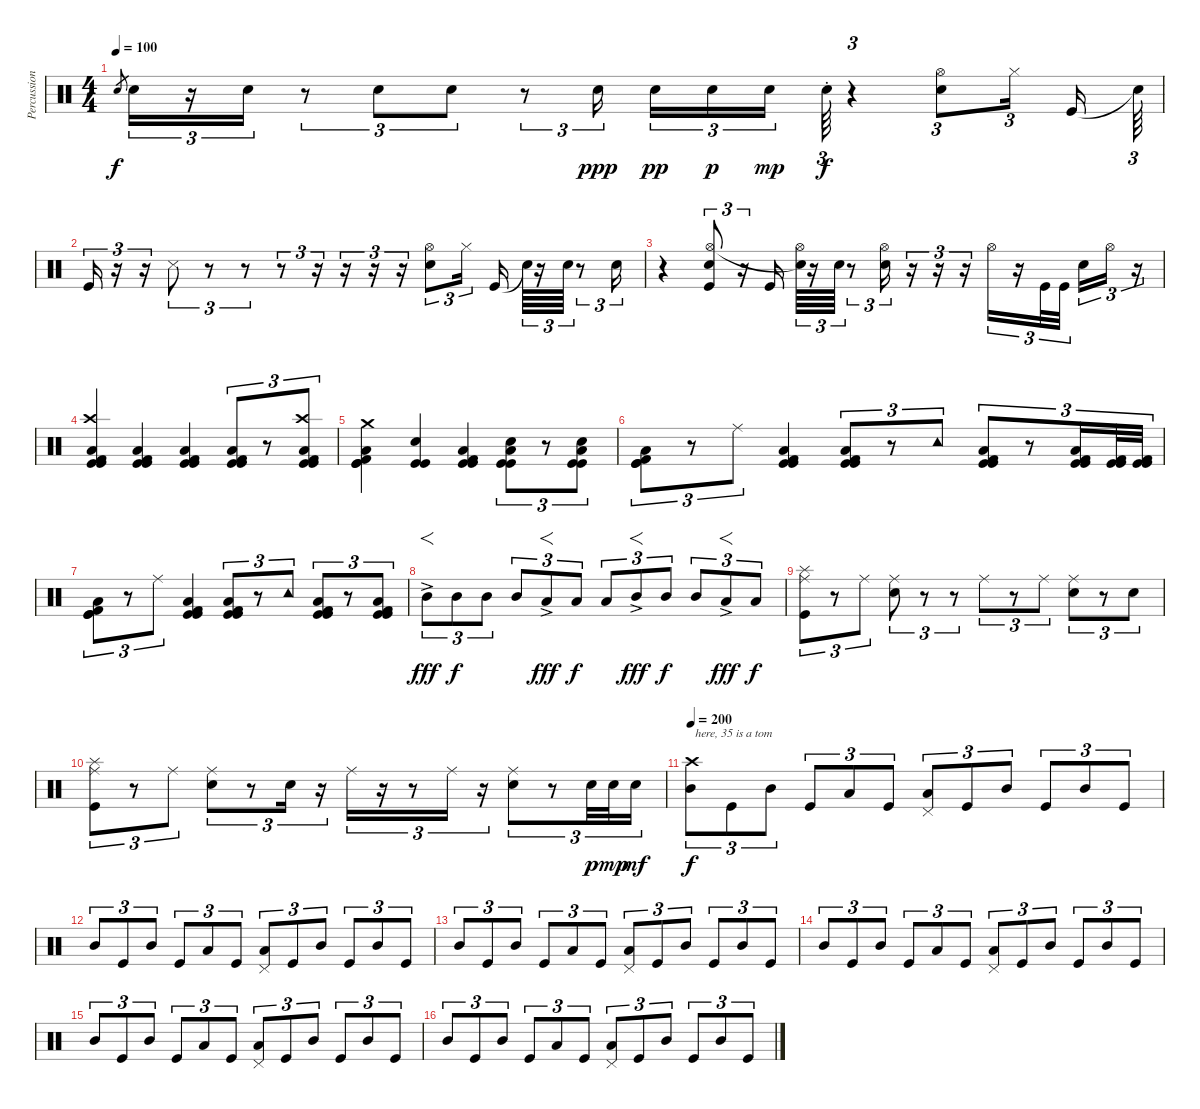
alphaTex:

\track ("Percussions" "Percussion") {instrument percussion}
\staff {score}
\articulation defaults
\ts (4 4)
\tempo 100
\clef neutral
\ks c "Snare (hit) 2".8{gr dy f} "Snare (hit) 2".16{tu (3 2)}
r.16{tu (3 2)} "Snare (hit) 2".16{tu (3 2)} r.8{tu (3 2)} "Snare (hit) 2".8{tu (3 2)} "Snare (hit) 2".8{tu (3 2)} r.8{tu (3 2)} "Snare (hit) 2".16{tu (3 2) dy ppp} "Snare (hit) 2".16{tu (3 2) dy pp} "Snare (hit) 2".16{tu (3 2) dy p} "Snare (hit) 2".16{tu (3 2) dy mp} "Snare (hit) 2"{st}.64{tu (3 2) dy f} r.4{tu (3 2)} ("Snare (hit) 2" "Hi-Hat (open)").8{tu (3 2)} "Hi-Hat (closed)".16{tu (3 2)} "Kick (hit)".16 "Snare (hit)"{t}.64{tu (3 2)} |
"Kick (hit)".16{tu (3 2)} r.16{tu (3 2)} r.16{tu (3 2)} "Snare (side stick) 3".8{tu (3 2)} r.8{tu (3 2)} r.8{tu (3 2)} r.8{tu (3 2)} r.16{tu (3 2)} r.16{tu (3 2)} r.16{tu (3 2)} r.16{tu (3 2)} ("Snare (hit) 2" "Hi-Hat (open)").8{tu (3 2)} "Hi-Hat (closed)".16{tu (3 2)} "Kick (hit)".16 "Snare (hit)"{t}.64{tu (3 2)} r.16{tu (3 2)} "Snare (hit) 2".64{tu (3 2)} r.8{tu (3 2)} "Snare (hit) 2".16{tu (3 2)} |
r.4 ("Snare (hit) 2" "Hi-Hat (open)" "Kick (hit)").8{tu (3 2)} r.16{tu (3 2)} "Kick (hit)".16 ("Hi-Hat (open)" "Snare (hit)"{t}).64{tu (3 2)} r.16{tu (3 2)} "Snare (hit) 2".64{tu (3 2)} r.8{tu (3 2)} ("Snare (hit) 2" "Hi-Hat (open)").16{tu (3 2)} r.16{tu (3 2)} r.16{tu (3 2)} r.16{tu (3 2)} "Hi-Hat (open)".16{tu (3 2)} r.16{tu (3 2)} "Kick (hit)".32{tu (3 2)} "Kick (hit)".32{tu (3 2)} "Snare (hit) 2".16{tu (3 2)} "Hi-Hat (open)".16{tu (3 2)} r.16{tu (3 2)} |
("Crash high (hit)" "Low Floor Tom (hit)" "Kick (hit) 2" "Kick (hit)" "Kick (hit)").4 ("Low Floor Tom (hit)" "Kick (hit) 2" "Kick (hit)" "Kick (hit)").4 ("Low Floor Tom (hit)" "Kick (hit) 2" "Kick (hit)" "Kick (hit)").4 ("Low Floor Tom (hit)" "Kick (hit) 2" "Kick (hit)" "Kick (hit)").8{tu (3 2)} r.8{tu (3 2)} ("Crash high (hit)" "Low Floor Tom (hit)" "Kick (hit) 2" "Kick (hit)" "Kick (hit)").8{tu (3 2)} |
("Crash medium (hit)" "Low Floor Tom (hit)" "Kick (hit) 2" "Kick (hit)" "Kick (hit)").4 ("Snare (hit) 2" "Kick (hit)" "Kick (hit)").4 ("Low Floor Tom (hit)" "Kick (hit) 2" "Kick (hit)" "Kick (hit)").4 ("Low Floor Tom (hit)" "Snare (hit) 2" "Kick (hit)" "Kick (hit)").8{tu (3 2)} r.8{tu (3 2)} ("Low Floor Tom (hit)" "Snare (hit) 2" "Kick (hit)" "Kick (hit)").8{tu (3 2)} |
("Low Floor Tom (hit)" "Kick (hit) 2" "Kick (hit)" "Kick (hit)").8{tu (3 2)} r.8{tu (3 2)} "Ride (middle)".8{tu (3 2)} ("Low Floor Tom (hit)" "Kick (hit) 2" "Kick (hit)" "Kick (hit)").4 ("Low Floor Tom (hit)" "Kick (hit) 2" "Kick (hit)" "Kick (hit)").8{tu (3 2)} r.8{tu (3 2)} "Tambourine (hit)".8{tu (3 2)} ("Low Floor Tom (hit)" "Kick (hit) 2" "Kick (hit)" "Kick (hit)").8{tu (3 2)} r.8{tu (3 2)} ("Low Floor Tom (hit)" "Kick (hit) 2" "Kick (hit)" "Kick (hit)").16{tu (3 2)} ("Kick (hit) 2" "Kick (hit)" "Kick (hit)").32{tu (3 2)} ("Kick (hit) 2" "Kick (hit)" "Kick (hit)").32{tu (3 2)} |
("Low Floor Tom (hit)" "Kick (hit) 2" "Kick (hit)" "Kick (hit)").8{tu (3 2)} r.8{tu (3 2)} "Ride (middle)".8{tu (3 2)} ("Low Floor Tom (hit)" "Kick (hit) 2" "Kick (hit)" "Kick (hit)").4 ("Low Floor Tom (hit)" "Kick (hit) 2" "Kick (hit)" "Kick (hit)").8{tu (3 2)} r.8{tu (3 2)} "Tambourine (hit)".8{tu (3 2)} ("Low Floor Tom (hit)" "Kick (hit) 2" "Kick (hit)" "Kick (hit)").8{tu (3 2)} r.8{tu (3 2)} ("Low Floor Tom (hit)" "Kick (hit) 2" "Kick (hit)" "Kick (hit)").8{tu (3 2)} |
"Mid Tom (hit)"{ac}.8{f tu (3 2) dy fff} "Mid Tom (hit)".8{tu (3 2) dy f} "Mid Tom (hit)".8{tu (3 2)} "Mid Tom (hit)".8{tu (3 2)} "Low Tom (hit)"{ac}.8{f tu (3 2) dy fff} "Low Tom (hit)".8{tu (3 2) dy f} "Low Tom (hit)".8{tu (3 2)} "Mid Tom (hit)"{ac}.8{f tu (3 2) dy fff} "Mid Tom (hit)".8{tu (3 2) dy f} "Mid Tom (hit)".8{tu (3 2)} "Low Tom (hit)"{ac}.8{f tu (3 2) dy fff} "Low Tom (hit)".8{tu (3 2) dy f} |
("Ride (middle)" "Splash (hit)" "Kick (hit)").8{tu (3 2)} r.8{tu (3 2)} "Ride (middle)".8{tu (3 2)} ("Ride (middle)" "Snare (hit) 2").8{tu (3 2)} r.8{tu (3 2)} r.8{tu (3 2)} "Ride (middle)".8{tu (3 2)} r.8{tu (3 2)} "Ride (middle)".8{tu (3 2)} ("Ride (middle)" "Snare (hit) 2").8{tu (3 2)} r.8{tu (3 2)} "Snare (hit) 2".8{tu (3 2)} |
("Ride (middle)" "Splash (hit)" "Kick (hit)").8{tu (3 2)} r.8{tu (3 2)} "Ride (middle)".8{tu (3 2)} ("Ride (middle)" "Snare (hit) 2").8{tu (3 2)} r.8{tu (3 2)} "Snare (hit) 2".16{tu (3 2)} r.16{tu (3 2)} "Ride (middle)".16{tu (3 2)} r.16{tu (3 2)} r.8{tu (3 2)} "Ride (middle)".16{tu (3 2)} r.16{tu (3 2)} ("Ride (middle)" "Snare (hit) 2").8{tu (3 2)} r.8{tu (3 2)} "Snare (hit) 2".32{tu (3 2) dy p} "Snare (hit) 2".32{tu (3 2) dy mp} "Snare (hit) 2".16{tu (3 2) dy mf} |
\tempo 200
("Crash high (hit)" "Mid Tom (hit)").8{tu (3 2) txt " here, 35 is a tom" dy f} "Kick (hit)".8{tu (3 2)} "Mid Tom (hit)".8{tu (3 2)} "Kick (hit)".8{tu (3 2)} "Low Tom (hit)".8{tu (3 2)} "Kick (hit)".8{tu (3 2)} ("Pedal Hi-Hat (hit)" "Low Tom (hit)").8{tu (3 2)} "Kick (hit)".8{tu (3 2)} "Mid Tom (hit)".8{tu (3 2)} "Kick (hit)".8{tu (3 2)} "Mid Tom (hit)".8{tu (3 2)} "Kick (hit)".8{tu (3 2)} |
"Mid Tom (hit)".8{tu (3 2)} "Kick (hit)".8{tu (3 2)} "Mid Tom (hit)".8{tu (3 2)} "Kick (hit)".8{tu (3 2)} "Low Tom (hit)".8{tu (3 2)} "Kick (hit)".8{tu (3 2)} ("Pedal Hi-Hat (hit)" "Low Tom (hit)").8{tu (3 2)} "Kick (hit)".8{tu (3 2)} "Mid Tom (hit)".8{tu (3 2)} "Kick (hit)".8{tu (3 2)} "Mid Tom (hit)".8{tu (3 2)} "Kick (hit)".8{tu (3 2)} |
"Mid Tom (hit)".8{tu (3 2)} "Kick (hit)".8{tu (3 2)} "Mid Tom (hit)".8{tu (3 2)} "Kick (hit)".8{tu (3 2)} "Low Tom (hit)".8{tu (3 2)} "Kick (hit)".8{tu (3 2)} ("Pedal Hi-Hat (hit)" "Low Tom (hit)").8{tu (3 2)} "Kick (hit)".8{tu (3 2)} "Mid Tom (hit)".8{tu (3 2)} "Kick (hit)".8{tu (3 2)} "Mid Tom (hit)".8{tu (3 2)} "Kick (hit)".8{tu (3 2)} |
"Mid Tom (hit)".8{tu (3 2)} "Kick (hit)".8{tu (3 2)} "Mid Tom (hit)".8{tu (3 2)} "Kick (hit)".8{tu (3 2)} "Low Tom (hit)".8{tu (3 2)} "Kick (hit)".8{tu (3 2)} ("Pedal Hi-Hat (hit)" "Low Tom (hit)").8{tu (3 2)} "Kick (hit)".8{tu (3 2)} "Mid Tom (hit)".8{tu (3 2)} "Kick (hit)".8{tu (3 2)} "Mid Tom (hit)".8{tu (3 2)} "Kick (hit)".8{tu (3 2)} |
"Mid Tom (hit)".8{tu (3 2)} "Kick (hit)".8{tu (3 2)} "Mid Tom (hit)".8{tu (3 2)} "Kick (hit)".8{tu (3 2)} "Low Tom (hit)".8{tu (3 2)} "Kick (hit)".8{tu (3 2)} ("Pedal Hi-Hat (hit)" "Low Tom (hit)").8{tu (3 2)} "Kick (hit)".8{tu (3 2)} "Mid Tom (hit)".8{tu (3 2)} "Kick (hit)".8{tu (3 2)} "Mid Tom (hit)".8{tu (3 2)} "Kick (hit)".8{tu (3 2)} |
"Mid Tom (hit)".8{tu (3 2)} "Kick (hit)".8{tu (3 2)} "Mid Tom (hit)".8{tu (3 2)} "Kick (hit)".8{tu (3 2)} "Low Tom (hit)".8{tu (3 2)} "Kick (hit)".8{tu (3 2)} ("Pedal Hi-Hat (hit)" "Low Tom (hit)").8{tu (3 2)} "Kick (hit)".8{tu (3 2)} "Mid Tom (hit)".8{tu (3 2)} "Kick (hit)".8{tu (3 2)} "Mid Tom (hit)".8{tu (3 2)} "Kick (hit)".8{tu (3 2)}
